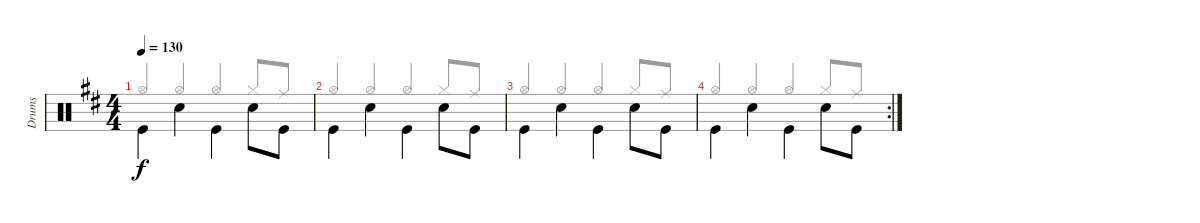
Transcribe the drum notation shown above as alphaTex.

\track ("Drums" "Drums") {instrument percussion}
\staff {score}
\articulation defaults
\voice
\ts (4 4)
\tempo 130
\clef neutral
\ks d "Kick (hit)".4{dy f beam Down} "Snare (hit) 2".4{beam Down} "Kick (hit)".4{beam Down} "Snare (hit) 2".8{beam Down} "Kick (hit)".8{beam Down}
|
"Kick (hit)".4{beam Down} "Snare (hit) 2".4{beam Down} "Kick (hit)".4{beam Down} "Snare (hit) 2".8{beam Down} "Kick (hit)".8{beam Down} |
"Kick (hit)".4{beam Down} "Snare (hit) 2".4{beam Down} "Kick (hit)".4{beam Down} "Snare (hit) 2".8{beam Down} "Kick (hit)".8{beam Down} |
\rc 2 "Kick (hit)".4{beam Down} "Snare (hit) 2".4{beam Down} "Kick (hit)".4{beam Down} "Snare (hit) 2".8{beam Down} "Kick (hit)".8{beam Down}
\voice
\clef neutral
\ottava regular
\simile none
\ks d "Hi-Hat (open)".4{dy f beam Up} "Hi-Hat (open)".4{beam Up} "Hi-Hat (open)".4{beam Up} "Hi-Hat (closed)".8{beam Up} "Ride (middle)".8{beam Up}
|
"Hi-Hat (open)".4{beam Up} "Hi-Hat (open)".4{beam Up} "Hi-Hat (open)".4{beam Up} "Hi-Hat (closed)".8{beam Up} "Ride (middle)".8{beam Up} |
"Hi-Hat (open)".4{beam Up} "Hi-Hat (open)".4{beam Up} "Hi-Hat (open)".4{beam Up} "Hi-Hat (closed)".8{beam Up} "Ride (middle)".8{beam Up} |
"Hi-Hat (open)".4{beam Up} "Hi-Hat (open)".4{beam Up} "Hi-Hat (open)".4{beam Up} "Hi-Hat (closed)".8{beam Up} "Ride (middle)".8{beam Up}
